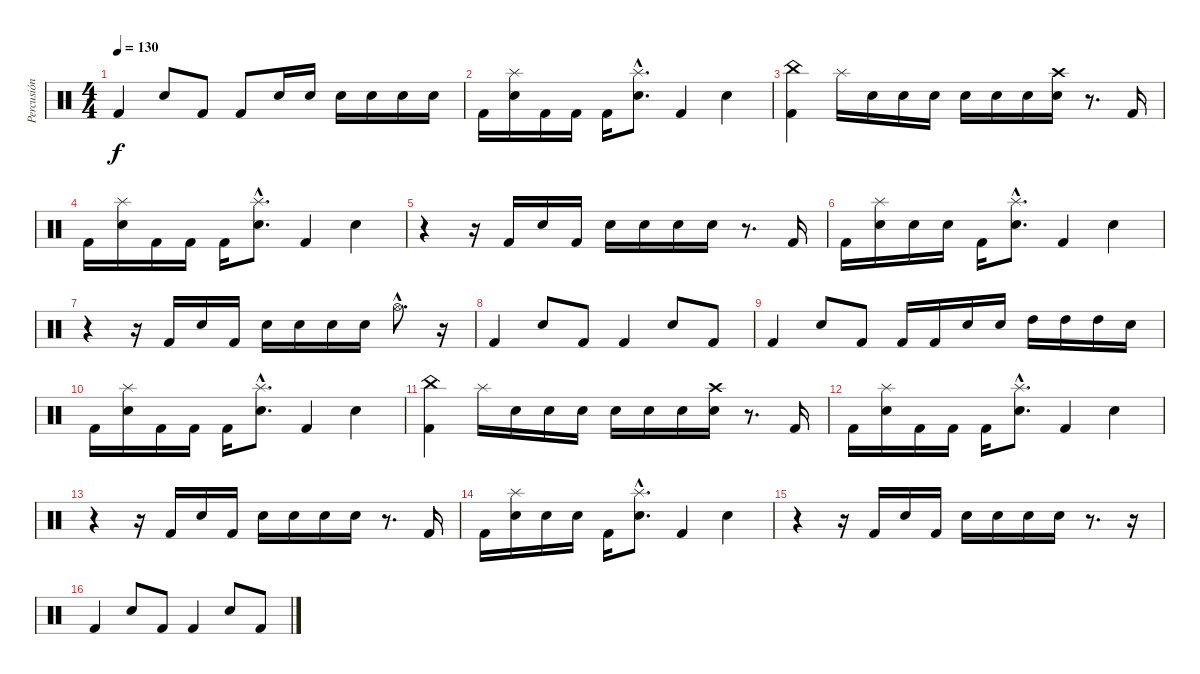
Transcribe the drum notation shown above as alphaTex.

\track ("Percusión" "Percusión") {instrument percussion}
\staff {score}
\articulation defaults
\ts (4 4)
\tempo 130
\clef neutral
\ks c "Kick (hit) 2".4{dy f} "Electric Snare (hit)".8 "Kick (hit) 2".8 "Kick (hit) 2".8 "Electric Snare (hit)".16 "Electric Snare (hit)".16 "Electric Snare (hit)".16 "Electric Snare (hit)".16 "Electric Snare (hit)".16 "Electric Snare (hit)".16
|
"Kick (hit) 2".16 ("Splash (hit)" "Electric Snare (hit)").16 "Kick (hit) 2".16 "Kick (hit) 2".16 "Kick (hit) 2".16 ("Splash (hit)"{hac} "Electric Snare (hit)"{hac}).8{d} "Kick (hit) 2".4 "Electric Snare (hit)".4 |
("China (hit)" "Kick (hit) 2").4 "Splash (hit)".16 "Electric Snare (hit)".16 "Electric Snare (hit)".16 "Electric Snare (hit)".16 "Electric Snare (hit)".16 "Electric Snare (hit)".16 "Electric Snare (hit)".16 ("Crash high (hit)" "Electric Snare (hit)").16 r.8{d} "Kick (hit) 2".16 |
"Kick (hit) 2".16 ("Splash (hit)" "Electric Snare (hit)").16 "Kick (hit) 2".16 "Kick (hit) 2".16 "Kick (hit) 2".16 ("Splash (hit)"{hac} "Electric Snare (hit)"{hac}).8{d} "Kick (hit) 2".4 "Electric Snare (hit)".4 |
r.4 r.16 "Kick (hit) 2".16 "Electric Snare (hit)".16 "Kick (hit) 2".16 "Electric Snare (hit)".16 "Electric Snare (hit)".16 "Electric Snare (hit)".16 "Electric Snare (hit)".16 r.8{d} "Kick (hit) 2".16 |
"Kick (hit) 2".16 ("Splash (hit)" "Electric Snare (hit)").16 "Electric Snare (hit)".16 "Electric Snare (hit)".16 "Kick (hit) 2".16 ("Splash (hit)"{hac} "Electric Snare (hit)"{hac}).8{d} "Kick (hit) 2".4 "Electric Snare (hit)".4 |
r.4 r.16 "Kick (hit) 2".16 "Electric Snare (hit)".16 "Kick (hit) 2".16 "Electric Snare (hit)".16 "Electric Snare (hit)".16 "Electric Snare (hit)".16 "Electric Snare (hit)".16 "Hi-Hat (open)"{hac}.8{d} r.16 |
"Kick (hit) 2".4 "Electric Snare (hit)".8 "Kick (hit) 2".8 "Kick (hit) 2".4 "Electric Snare (hit)".8 "Kick (hit) 2".8 |
"Kick (hit) 2".4 "Electric Snare (hit)".8 "Kick (hit) 2".8 "Kick (hit) 2".16 "Kick (hit) 2".16 "Electric Snare (hit)".16 "Electric Snare (hit)".16 "High Tom (hit)".16 "High Tom (hit)".16 "High Tom (hit)".16 "Electric Snare (hit)".16 |
"Kick (hit) 2".16 ("Splash (hit)" "Electric Snare (hit)").16 "Kick (hit) 2".16 "Kick (hit) 2".16 "Kick (hit) 2".16 ("Splash (hit)"{hac} "Electric Snare (hit)"{hac}).8{d} "Kick (hit) 2".4 "Electric Snare (hit)".4 |
("China (hit)" "Kick (hit) 2").4 "Splash (hit)".16 "Electric Snare (hit)".16 "Electric Snare (hit)".16 "Electric Snare (hit)".16 "Electric Snare (hit)".16 "Electric Snare (hit)".16 "Electric Snare (hit)".16 ("Crash high (hit)" "Electric Snare (hit)").16 r.8{d} "Kick (hit) 2".16 |
"Kick (hit) 2".16 ("Splash (hit)" "Electric Snare (hit)").16 "Kick (hit) 2".16 "Kick (hit) 2".16 "Kick (hit) 2".16 ("Splash (hit)"{hac} "Electric Snare (hit)"{hac}).8{d} "Kick (hit) 2".4 "Electric Snare (hit)".4 |
r.4 r.16 "Kick (hit) 2".16 "Electric Snare (hit)".16 "Kick (hit) 2".16 "Electric Snare (hit)".16 "Electric Snare (hit)".16 "Electric Snare (hit)".16 "Electric Snare (hit)".16 r.8{d} "Kick (hit) 2".16 |
"Kick (hit) 2".16 ("Splash (hit)" "Electric Snare (hit)").16 "Electric Snare (hit)".16 "Electric Snare (hit)".16 "Kick (hit) 2".16 ("Splash (hit)"{hac} "Electric Snare (hit)"{hac}).8{d} "Kick (hit) 2".4 "Electric Snare (hit)".4 |
r.4 r.16 "Kick (hit) 2".16 "Electric Snare (hit)".16 "Kick (hit) 2".16 "Electric Snare (hit)".16 "Electric Snare (hit)".16 "Electric Snare (hit)".16 "Electric Snare (hit)".16 r.8{d} r.16 |
"Kick (hit) 2".4 "Electric Snare (hit)".8 "Kick (hit) 2".8 "Kick (hit) 2".4 "Electric Snare (hit)".8 "Kick (hit) 2".8
